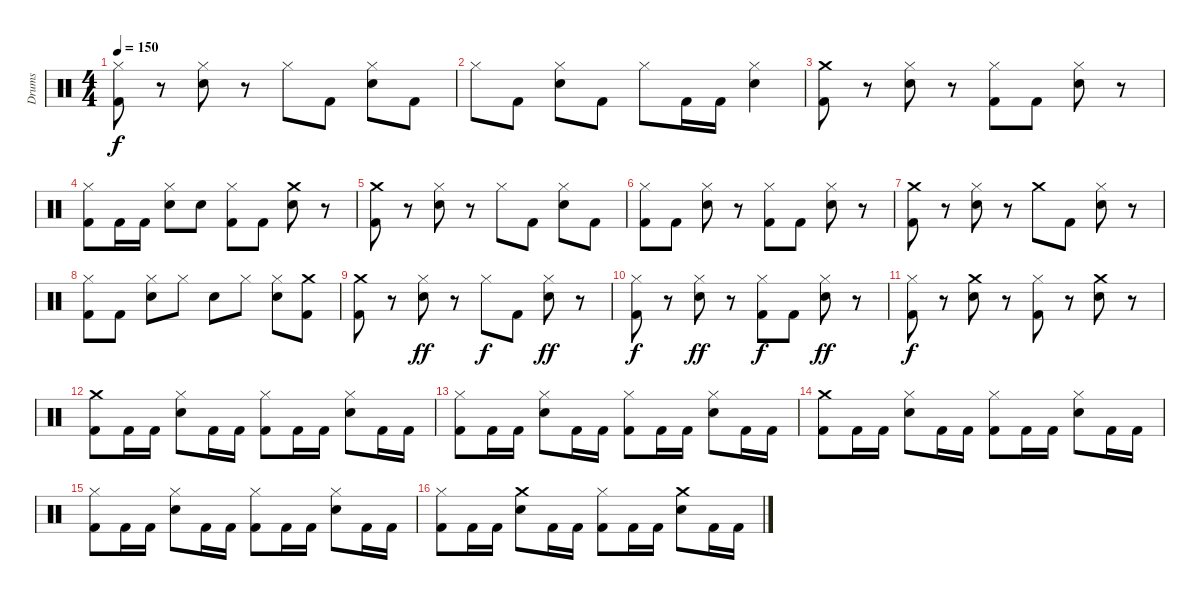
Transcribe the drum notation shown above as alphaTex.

\track ("Drums" "Drums") {instrument percussion}
\staff {score}
\articulation defaults
\ts (4 4)
\tempo 150
\clef neutral
\ks c
("Hi-Hat (closed)" "Kick (hit) 2").8{dy f} r.8 ("Hi-Hat (closed)" "Snare (hit) 2").8 r.8 "Hi-Hat (closed)".8 "Kick (hit) 2".8 ("Hi-Hat (closed)" "Snare (hit) 2").8 "Kick (hit) 2".8 |
"Hi-Hat (closed)".8 "Kick (hit) 2".8 ("Hi-Hat (closed)" "Snare (hit) 2").8 "Kick (hit) 2".8 "Hi-Hat (closed)".8 "Kick (hit) 2".16 "Kick (hit) 2".16 ("Hi-Hat (closed)" "Snare (hit) 2").4 |
("Crash medium (hit)" "Kick (hit) 2").8 r.8 ("Hi-Hat (closed)" "Snare (hit) 2").8 r.8 ("Hi-Hat (closed)" "Kick (hit) 2").8 "Kick (hit) 2".8 ("Hi-Hat (closed)" "Snare (hit) 2").8 r.8 |
("Hi-Hat (closed)" "Kick (hit) 2").8 "Kick (hit) 2".16 "Kick (hit) 2".16 ("Hi-Hat (closed)" "Snare (hit) 2").8 "Snare (hit) 2".8 ("Hi-Hat (closed)" "Kick (hit) 2").8 "Kick (hit) 2".8 ("Crash medium (hit)" "Snare (hit) 2").8 r.8 |
("Crash medium (hit)" "Kick (hit) 2").8 r.8 ("Hi-Hat (closed)" "Snare (hit) 2").8 r.8 "Hi-Hat (closed)".8 "Kick (hit) 2".8 ("Hi-Hat (closed)" "Snare (hit) 2").8 "Kick (hit) 2".8 |
("Hi-Hat (closed)" "Kick (hit) 2").8 "Kick (hit) 2".8 ("Hi-Hat (closed)" "Snare (hit) 2").8 r.8 ("Hi-Hat (closed)" "Kick (hit) 2").8 "Kick (hit) 2".8 ("Hi-Hat (closed)" "Snare (hit) 2").8 r.8 |
("Crash medium (hit)" "Kick (hit) 2").8 r.8 ("Hi-Hat (closed)" "Snare (hit) 2").8 r.8 "Crash medium (hit)".8 "Kick (hit) 2".8 ("Hi-Hat (closed)" "Snare (hit) 2").8 r.8 |
("Hi-Hat (closed)" "Kick (hit) 2").8 "Kick (hit) 2".8 ("Hi-Hat (closed)" "Snare (hit) 2").8 "Hi-Hat (closed)".8 "Snare (hit) 2".8 "Hi-Hat (closed)".8 ("Hi-Hat (closed)" "Snare (hit) 2").8 ("Crash medium (hit)" "Kick (hit) 2").8 |
("Crash medium (hit)" "Kick (hit) 2").8 r.8 ("Snare (hit) 2" "Hi-Hat (closed)").8{dy ff} r.8 "Hi-Hat (closed)".8{dy f} "Kick (hit) 2".8 ("Snare (hit) 2" "Hi-Hat (closed)").8{dy ff} r.8 |
("Hi-Hat (closed)" "Kick (hit) 2").8{dy f} r.8 ("Snare (hit) 2" "Hi-Hat (closed)").8{dy ff} r.8 ("Hi-Hat (closed)" "Kick (hit) 2").8{dy f} "Kick (hit) 2".8 ("Snare (hit) 2" "Hi-Hat (closed)").8{dy ff} r.8 |
("Hi-Hat (closed)" "Kick (hit) 2").8{dy f} r.8 ("Crash medium (hit)" "Snare (hit) 2").8 r.8 ("Hi-Hat (closed)" "Kick (hit) 2").8 r.8 ("Crash medium (hit)" "Snare (hit) 2").8 r.8 |
("Crash medium (hit)" "Kick (hit) 2").8 "Kick (hit) 2".16 "Kick (hit) 2".16 ("Hi-Hat (closed)" "Snare (hit) 2").8 "Kick (hit) 2".16 "Kick (hit) 2".16 ("Hi-Hat (closed)" "Kick (hit) 2").8 "Kick (hit) 2".16 "Kick (hit) 2".16 ("Hi-Hat (closed)" "Snare (hit) 2").8 "Kick (hit) 2".16 "Kick (hit) 2".16 |
("Hi-Hat (closed)" "Kick (hit) 2").8 "Kick (hit) 2".16 "Kick (hit) 2".16 ("Hi-Hat (closed)" "Snare (hit) 2").8 "Kick (hit) 2".16 "Kick (hit) 2".16 ("Hi-Hat (closed)" "Kick (hit) 2").8 "Kick (hit) 2".16 "Kick (hit) 2".16 ("Hi-Hat (closed)" "Snare (hit) 2").8 "Kick (hit) 2".16 "Kick (hit) 2".16 |
("Crash medium (hit)" "Kick (hit) 2").8 "Kick (hit) 2".16 "Kick (hit) 2".16 ("Hi-Hat (closed)" "Snare (hit) 2").8 "Kick (hit) 2".16 "Kick (hit) 2".16 ("Hi-Hat (closed)" "Kick (hit) 2").8 "Kick (hit) 2".16 "Kick (hit) 2".16 ("Hi-Hat (closed)" "Snare (hit) 2").8 "Kick (hit) 2".16 "Kick (hit) 2".16 |
("Hi-Hat (closed)" "Kick (hit) 2").8 "Kick (hit) 2".16 "Kick (hit) 2".16 ("Hi-Hat (closed)" "Snare (hit) 2").8 "Kick (hit) 2".16 "Kick (hit) 2".16 ("Hi-Hat (closed)" "Kick (hit) 2").8 "Kick (hit) 2".16 "Kick (hit) 2".16 ("Hi-Hat (closed)" "Snare (hit) 2").8 "Kick (hit) 2".16 "Kick (hit) 2".16 |
("Hi-Hat (closed)" "Kick (hit) 2").8 "Kick (hit) 2".16 "Kick (hit) 2".16 ("Crash medium (hit)" "Snare (hit) 2").8 "Kick (hit) 2".16 "Kick (hit) 2".16 ("Hi-Hat (closed)" "Kick (hit) 2").8 "Kick (hit) 2".16 "Kick (hit) 2".16 ("Crash medium (hit)" "Snare (hit) 2").8 "Kick (hit) 2".16 "Kick (hit) 2".16
